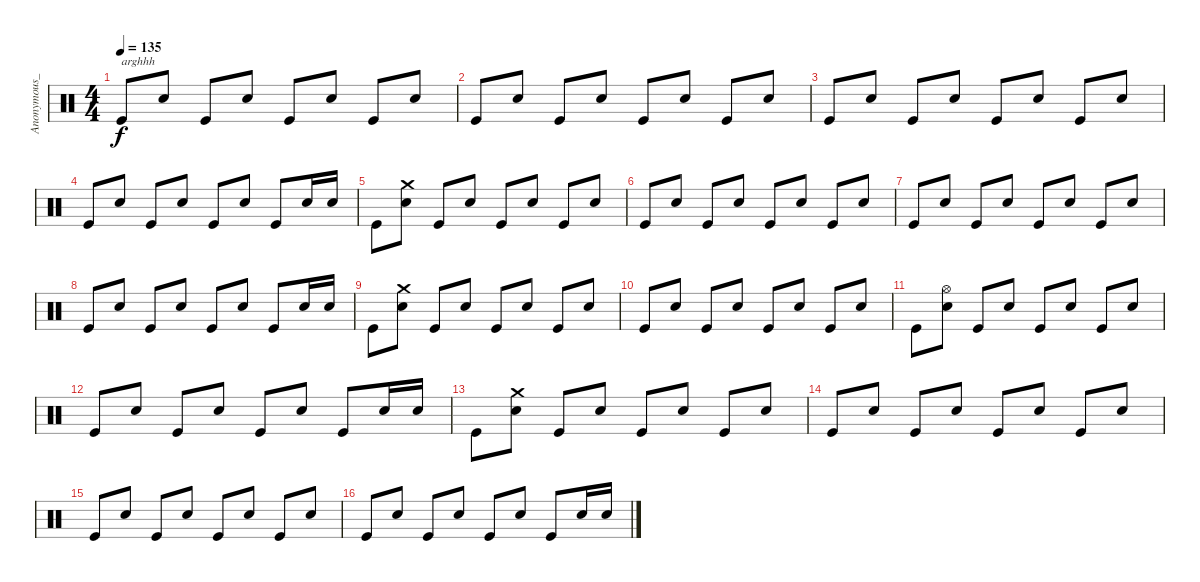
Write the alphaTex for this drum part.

\track ("Anonymous_Drums" "Anonymous_") {instrument percussion}
\staff {score}
\articulation defaults
\ts (4 4)
\tempo 135
\clef neutral
\ks c "Kick (hit)".8{txt "arghhh" dy f} "Snare (hit) 2".8 "Kick (hit)".8 "Snare (hit) 2".8 "Kick (hit)".8 "Snare (hit) 2".8 "Kick (hit)".8 "Snare (hit) 2".8
|
"Kick (hit)".8 "Snare (hit) 2".8 "Kick (hit)".8 "Snare (hit) 2".8 "Kick (hit)".8 "Snare (hit) 2".8 "Kick (hit)".8 "Snare (hit) 2".8 |
"Kick (hit)".8 "Snare (hit) 2".8 "Kick (hit)".8 "Snare (hit) 2".8 "Kick (hit)".8 "Snare (hit) 2".8 "Kick (hit)".8 "Snare (hit) 2".8 |
"Kick (hit)".8 "Snare (hit) 2".8 "Kick (hit)".8 "Snare (hit) 2".8 "Kick (hit)".8 "Snare (hit) 2".8 "Kick (hit)".8 "Snare (hit) 2".16 "Snare (hit) 2".16 |
"Kick (hit)".8 ("Crash medium (hit)" "Snare (hit) 2").8 "Kick (hit)".8 "Snare (hit) 2".8 "Kick (hit)".8 "Snare (hit) 2".8 "Kick (hit)".8 "Snare (hit) 2".8 |
"Kick (hit)".8 "Snare (hit) 2".8 "Kick (hit)".8 "Snare (hit) 2".8 "Kick (hit)".8 "Snare (hit) 2".8 "Kick (hit)".8 "Snare (hit) 2".8 |
"Kick (hit)".8 "Snare (hit) 2".8 "Kick (hit)".8 "Snare (hit) 2".8 "Kick (hit)".8 "Snare (hit) 2".8 "Kick (hit)".8 "Snare (hit) 2".8 |
"Kick (hit)".8 "Snare (hit) 2".8 "Kick (hit)".8 "Snare (hit) 2".8 "Kick (hit)".8 "Snare (hit) 2".8 "Kick (hit)".8 "Snare (hit) 2".16 "Snare (hit) 2".16 |
"Kick (hit)".8 ("Crash medium (hit)" "Snare (hit) 2").8 "Kick (hit)".8 "Snare (hit) 2".8 "Kick (hit)".8 "Snare (hit) 2".8 "Kick (hit)".8 "Snare (hit) 2".8 |
"Kick (hit)".8 "Snare (hit) 2".8 "Kick (hit)".8 "Snare (hit) 2".8 "Kick (hit)".8 "Snare (hit) 2".8 "Kick (hit)".8 "Snare (hit) 2".8 |
"Kick (hit)".8 ("Hi-Hat (open)" "Snare (hit) 2").8 "Kick (hit)".8 "Snare (hit) 2".8 "Kick (hit)".8 "Snare (hit) 2".8 "Kick (hit)".8 "Snare (hit) 2".8 |
"Kick (hit)".8 "Snare (hit) 2".8 "Kick (hit)".8 "Snare (hit) 2".8 "Kick (hit)".8 "Snare (hit) 2".8 "Kick (hit)".8 "Snare (hit) 2".16 "Snare (hit) 2".16 |
"Kick (hit)".8 ("Crash medium (hit)" "Snare (hit) 2").8 "Kick (hit)".8 "Snare (hit) 2".8 "Kick (hit)".8 "Snare (hit) 2".8 "Kick (hit)".8 "Snare (hit) 2".8 |
"Kick (hit)".8 "Snare (hit) 2".8 "Kick (hit)".8 "Snare (hit) 2".8 "Kick (hit)".8 "Snare (hit) 2".8 "Kick (hit)".8 "Snare (hit) 2".8 |
"Kick (hit)".8 "Snare (hit) 2".8 "Kick (hit)".8 "Snare (hit) 2".8 "Kick (hit)".8 "Snare (hit) 2".8 "Kick (hit)".8 "Snare (hit) 2".8 |
"Kick (hit)".8 "Snare (hit) 2".8 "Kick (hit)".8 "Snare (hit) 2".8 "Kick (hit)".8 "Snare (hit) 2".8 "Kick (hit)".8 "Snare (hit) 2".16 "Snare (hit) 2".16
